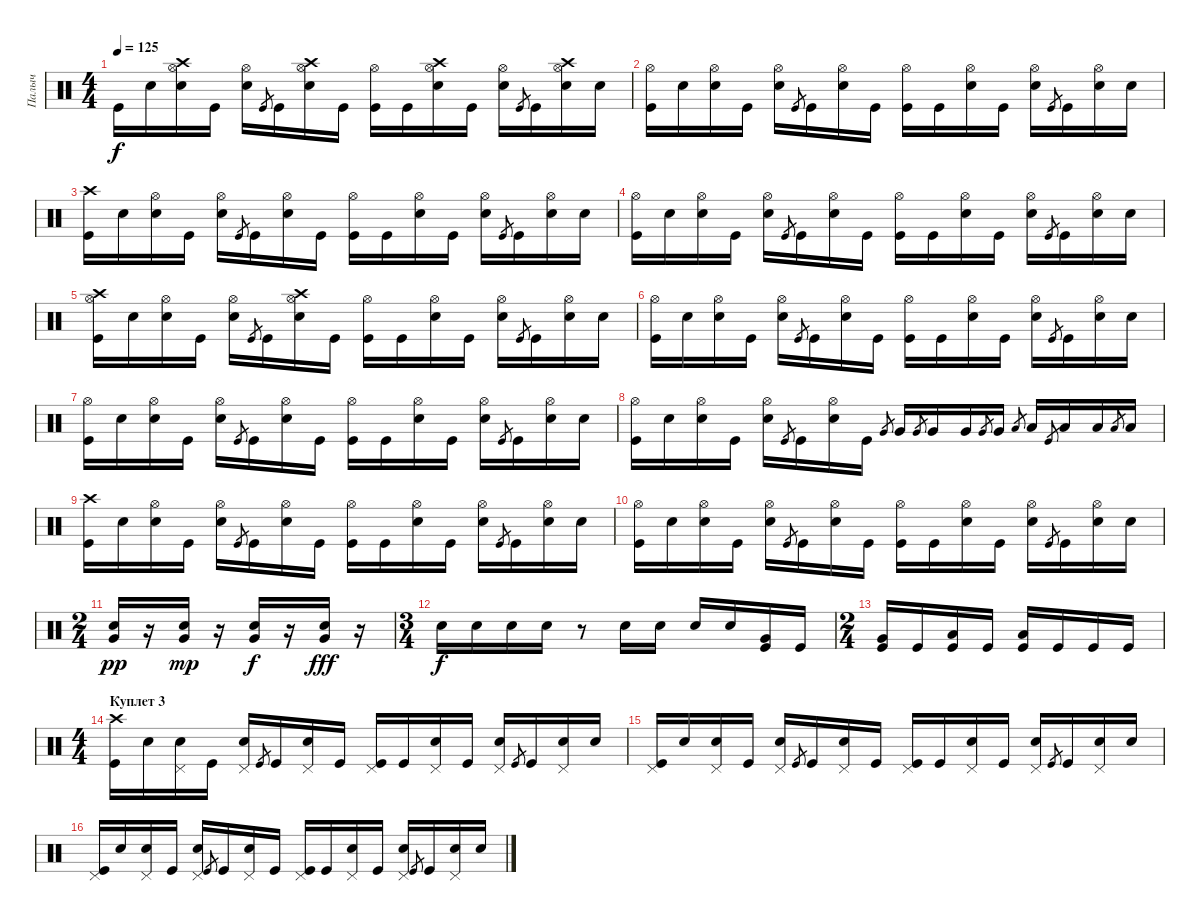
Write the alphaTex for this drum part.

\track ("Палыч" "Палыч") {instrument percussion}
\staff {score}
\articulation defaults
\ts (4 4)
\tempo 125
\clef neutral
\ks c "Kick (hit)".16{dy f} "Snare (hit)"{x}.16
("Snare (hit) 2" "Hi-Hat (open)" "Crash high (hit)").16 "Kick (hit)".16 ("Electric Snare (hit)"{x} "Hi-Hat (open)").16 "Kick (hit)".8{gr} "Kick (hit)".16 ("Snare (hit) 2" "Hi-Hat (open)" "Crash high (hit)").16 "Kick (hit)"{x}.16 ("Kick (hit)" "Hi-Hat (open)").16 "Kick (hit)"{x}.16 ("Snare (hit) 2" "Hi-Hat (open)" "Crash high (hit)").16 "Kick (hit)".16 ("Snare (hit)"{x} "Hi-Hat (open)").16 "Kick (hit)".8{gr} "Kick (hit)".16 ("Snare (hit) 2" "Hi-Hat (open)" "Crash high (hit)").16 "Snare (hit)"{x}.16 |
("Kick (hit)" "Hi-Hat (open)").16 "Snare (hit)"{x}.16 ("Snare (hit) 2" "Hi-Hat (open)").16 "Kick (hit)".16 ("Electric Snare (hit)"{x} "Hi-Hat (open)").16 "Kick (hit)".8{gr} "Kick (hit)".16 ("Snare (hit) 2" "Hi-Hat (open)").16 "Kick (hit)"{x}.16 ("Kick (hit)" "Hi-Hat (open)").16 "Kick (hit)"{x}.16 ("Snare (hit) 2" "Hi-Hat (open)").16 "Kick (hit)".16 ("Snare (hit)"{x} "Hi-Hat (open)").16 "Kick (hit)".8{gr} "Kick (hit)".16 ("Snare (hit) 2" "Hi-Hat (open)").16 "Snare (hit)"{x}.16 |
("Kick (hit)" "Crash high (hit)").16 "Snare (hit)"{x}.16 ("Snare (hit) 2" "Hi-Hat (open)").16 "Kick (hit)".16 ("Electric Snare (hit)"{x} "Hi-Hat (open)").16 "Kick (hit)".8{gr} "Kick (hit)".16 ("Snare (hit) 2" "Hi-Hat (open)").16 "Kick (hit)"{x}.16 ("Kick (hit)" "Hi-Hat (open)").16 "Kick (hit)"{x}.16 ("Snare (hit) 2" "Hi-Hat (open)").16 "Kick (hit)".16 ("Snare (hit)"{x} "Hi-Hat (open)").16 "Kick (hit)".8{gr} "Kick (hit)".16 ("Snare (hit) 2" "Hi-Hat (open)").16 "Snare (hit)"{x}.16 |
("Kick (hit)" "Hi-Hat (open)").16 "Snare (hit)"{x}.16 ("Snare (hit) 2" "Hi-Hat (open)").16 "Kick (hit)".16 ("Electric Snare (hit)"{x} "Hi-Hat (open)").16 "Kick (hit)".8{gr} "Kick (hit)".16 ("Snare (hit) 2" "Hi-Hat (open)").16 "Kick (hit)"{x}.16 ("Kick (hit)" "Hi-Hat (open)").16 "Kick (hit)"{x}.16 ("Snare (hit) 2" "Hi-Hat (open)").16 "Kick (hit)".16 ("Snare (hit)"{x} "Hi-Hat (open)").16 "Kick (hit)".8{gr} "Kick (hit)".16 ("Snare (hit) 2" "Hi-Hat (open)").16 "Snare (hit)"{x}.16 |
("Kick (hit)" "Crash high (hit)" "Hi-Hat (open)").16 "Snare (hit)"{x}.16 ("Snare (hit) 2" "Hi-Hat (open)").16 "Kick (hit)".16 ("Electric Snare (hit)"{x} "Hi-Hat (open)").16 "Kick (hit)".8{gr} "Kick (hit)".16 ("Snare (hit) 2" "Crash high (hit)" "Hi-Hat (open)").16 "Kick (hit)"{x}.16 ("Kick (hit)" "Hi-Hat (open)").16 "Kick (hit)"{x}.16 ("Snare (hit) 2" "Hi-Hat (open)").16 "Kick (hit)".16 ("Snare (hit)"{x} "Hi-Hat (open)").16 "Kick (hit)".8{gr} "Kick (hit)".16 ("Snare (hit) 2" "Hi-Hat (open)").16 "Snare (hit)"{x}.16 |
("Kick (hit)" "Hi-Hat (open)").16 "Snare (hit)"{x}.16 ("Snare (hit) 2" "Hi-Hat (open)").16 "Kick (hit)".16 ("Electric Snare (hit)"{x} "Hi-Hat (open)").16 "Kick (hit)".8{gr} "Kick (hit)".16 ("Snare (hit) 2" "Hi-Hat (open)").16 "Kick (hit)"{x}.16 ("Kick (hit)" "Hi-Hat (open)").16 "Kick (hit)"{x}.16 ("Snare (hit) 2" "Hi-Hat (open)").16 "Kick (hit)".16 ("Snare (hit)"{x} "Hi-Hat (open)").16 "Kick (hit)".8{gr} "Kick (hit)".16 ("Snare (hit) 2" "Hi-Hat (open)").16 "Snare (hit)"{x}.16 |
("Kick (hit)" "Hi-Hat (open)").16 "Snare (hit)"{x}.16 ("Snare (hit) 2" "Hi-Hat (open)").16 "Kick (hit)".16 ("Electric Snare (hit)"{x} "Hi-Hat (open)").16 "Kick (hit)".8{gr} "Kick (hit)".16 ("Snare (hit) 2" "Hi-Hat (open)").16 "Kick (hit)"{x}.16 ("Kick (hit)" "Hi-Hat (open)").16 "Kick (hit)"{x}.16 ("Snare (hit) 2" "Hi-Hat (open)").16 "Kick (hit)".16 ("Snare (hit)"{x} "Hi-Hat (open)").16 "Kick (hit)".8{gr} "Kick (hit)".16 ("Snare (hit) 2" "Hi-Hat (open)").16 "Snare (hit)"{x}.16 |
("Kick (hit)" "Hi-Hat (open)").16 "Snare (hit)"{x}.16 ("Snare (hit) 2" "Hi-Hat (open)").16 "Kick (hit)".16 ("Electric Snare (hit)"{x} "Hi-Hat (open)").16 "Kick (hit)".8{gr} "Kick (hit)".16 ("Snare (hit) 2" "Hi-Hat (open)").16 "Kick (hit)"{x}.16 "Very Low Tom (hit)".8{gr} "Very Low Tom (hit)".16 "Very Low Tom (hit)".8{gr} "Very Low Tom (hit)".16 "Very Low Tom (hit)".16 "Very Low Tom (hit)".8{gr} "Very Low Tom (hit)".16 "Low Floor Tom (hit)".8{gr} "Low Floor Tom (hit)".16 "Kick (hit)".8{gr} "Low Floor Tom (hit)".16 "Low Floor Tom (hit)".16 "Low Floor Tom (hit)".8{gr} "Low Floor Tom (hit)".16 |
("Kick (hit)" "Crash high (hit)").16 "Snare (hit)"{x}.16 ("Snare (hit) 2" "Hi-Hat (open)").16 "Kick (hit)".16 ("Electric Snare (hit)"{x} "Hi-Hat (open)").16 "Kick (hit)".8{gr} "Kick (hit)".16 ("Snare (hit) 2" "Hi-Hat (open)").16 "Kick (hit)"{x}.16 ("Kick (hit)" "Hi-Hat (open)").16 "Kick (hit)"{x}.16 ("Snare (hit) 2" "Hi-Hat (open)").16 "Kick (hit)".16 ("Snare (hit)"{x} "Hi-Hat (open)").16 "Kick (hit)".8{gr} "Kick (hit)".16 ("Snare (hit) 2" "Hi-Hat (open)").16 "Snare (hit)"{x}.16 |
("Kick (hit)" "Hi-Hat (open)").16 "Snare (hit)"{x}.16 ("Snare (hit) 2" "Hi-Hat (open)").16 "Kick (hit)".16 ("Electric Snare (hit)"{x} "Hi-Hat (open)").16 "Kick (hit)".8{gr} "Kick (hit)".16 ("Snare (hit) 2" "Hi-Hat (open)").16 "Kick (hit)"{x}.16 ("Kick (hit)" "Hi-Hat (open)").16 "Kick (hit)"{x}.16 ("Snare (hit) 2" "Hi-Hat (open)").16 "Kick (hit)".16 ("Snare (hit)"{x} "Hi-Hat (open)").16 "Kick (hit)".8{gr} "Kick (hit)".16 ("Snare (hit) 2" "Hi-Hat (open)").16 "Snare (hit)"{x}.16 |
\ts (2 4)
("Snare (hit) 2" "Very Low Tom (hit)").16{dy pp} r.16 ("Snare (hit) 2" "Very Low Tom (hit)").16{dy mp} r.16 ("Snare (hit) 2" "Very Low Tom (hit)").16{dy f} r.16 ("Snare (hit) 2" "Very Low Tom (hit)").16{dy fff} r.16 |
\ts (3 4)
"Electric Snare (hit)".16{dy f} "Electric Snare (hit)".16 "Electric Snare (hit)".16 "Electric Snare (hit)".16 r.8 "Electric Snare (hit)".16 "Electric Snare (hit)".16 "Electric Snare (hit)".16 "Electric Snare (hit)".16 ("Kick (hit)" "Very Low Tom (hit)").16 "Kick (hit)".16 |
\ts (2 4)
("Kick (hit)" "Very Low Tom (hit)").16 "Kick (hit)".16 ("Kick (hit)" "Low Floor Tom (hit)").16 "Kick (hit)".16 ("Kick (hit)" "Low Floor Tom (hit)").16 "Kick (hit)".16 "Kick (hit)".16 "Kick (hit)".16 |
\ts (4 4)
\section ("" "Куплет 3")
("Kick (hit)" "Crash high (hit)").16 "Snare (hit)"{x}.16 ("Electric Snare (hit)" "Pedal Hi-Hat (hit)").16 "Kick (hit)".16 ("Electric Snare (hit)"{x} "Pedal Hi-Hat (hit)").16 "Kick (hit)".8{gr} "Kick (hit)".16 ("Electric Snare (hit)" "Pedal Hi-Hat (hit)").16 "Kick (hit)"{x}.16 ("Kick (hit)" "Pedal Hi-Hat (hit)").16 "Kick (hit)"{x}.16 ("Electric Snare (hit)" "Pedal Hi-Hat (hit)").16 "Kick (hit)".16 ("Snare (hit)"{x} "Pedal Hi-Hat (hit)").16 "Kick (hit)".8{gr} "Kick (hit)".16 ("Electric Snare (hit)" "Pedal Hi-Hat (hit)").16 "Snare (hit)"{x}.16 |
("Kick (hit)" "Pedal Hi-Hat (hit)").16 "Snare (hit)"{x}.16 ("Electric Snare (hit)" "Pedal Hi-Hat (hit)").16 "Kick (hit)".16 ("Electric Snare (hit)"{x} "Pedal Hi-Hat (hit)").16 "Kick (hit)".8{gr} "Kick (hit)".16 ("Electric Snare (hit)" "Pedal Hi-Hat (hit)").16 "Kick (hit)"{x}.16 ("Kick (hit)" "Pedal Hi-Hat (hit)").16 "Kick (hit)"{x}.16 ("Electric Snare (hit)" "Pedal Hi-Hat (hit)").16 "Kick (hit)".16 ("Snare (hit)"{x} "Pedal Hi-Hat (hit)").16 "Kick (hit)".8{gr} "Kick (hit)".16 ("Electric Snare (hit)" "Pedal Hi-Hat (hit)").16 "Snare (hit)"{x}.16 |
("Kick (hit)" "Pedal Hi-Hat (hit)").16 "Snare (hit)"{x}.16 ("Electric Snare (hit)" "Pedal Hi-Hat (hit)").16 "Kick (hit)".16 ("Electric Snare (hit)"{x} "Pedal Hi-Hat (hit)").16 "Kick (hit)".8{gr} "Kick (hit)".16 ("Electric Snare (hit)" "Pedal Hi-Hat (hit)").16 "Kick (hit)"{x}.16 ("Kick (hit)" "Pedal Hi-Hat (hit)").16 "Kick (hit)"{x}.16 ("Electric Snare (hit)" "Pedal Hi-Hat (hit)").16 "Kick (hit)".16 ("Snare (hit)"{x} "Pedal Hi-Hat (hit)").16 "Kick (hit)".8{gr} "Kick (hit)".16 ("Electric Snare (hit)" "Pedal Hi-Hat (hit)").16 "Snare (hit)"{x}.16
